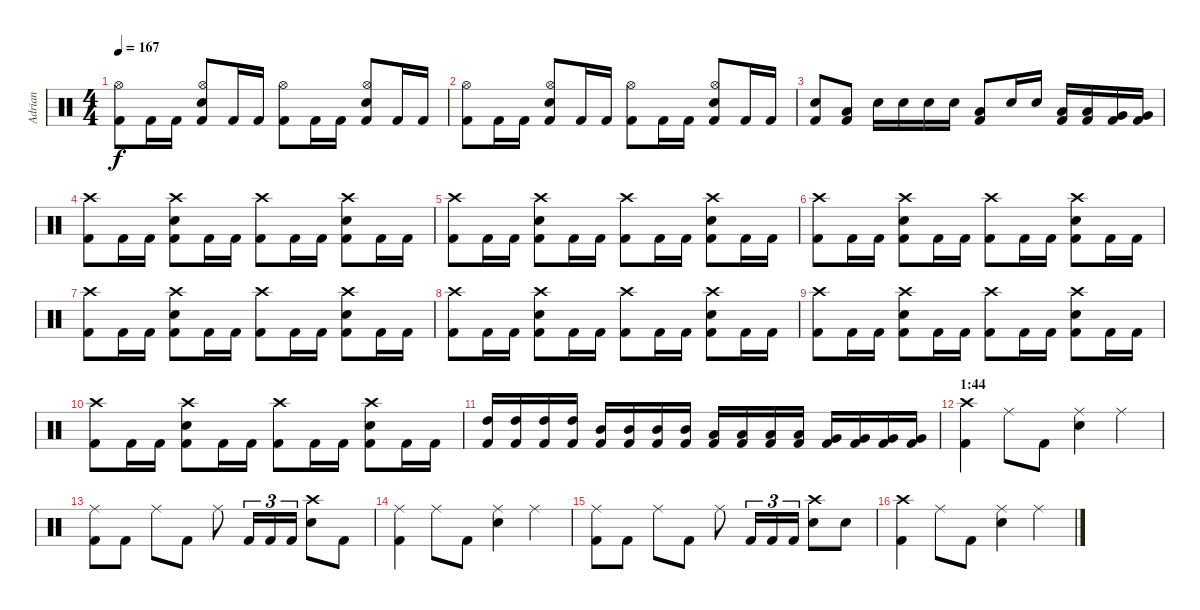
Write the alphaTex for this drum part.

\track ("Adrian" "Adrian") {instrument percussion}
\staff {score}
\articulation defaults
\ts (4 4)
\tempo 167
\clef neutral
\ks c
("Kick (hit) 2" "Hi-Hat (open)").8{dy f} "Kick (hit) 2".16 "Kick (hit) 2".16 ("Kick (hit) 2" "Snare (hit) 2" "Hi-Hat (open)").8 "Kick (hit) 2".16 "Kick (hit) 2".16 ("Kick (hit) 2" "Hi-Hat (open)").8 "Kick (hit) 2".16 "Kick (hit) 2".16 ("Kick (hit) 2" "Snare (hit) 2" "Hi-Hat (open)").8 "Kick (hit) 2".16 "Kick (hit) 2".16 |
("Kick (hit) 2" "Hi-Hat (open)").8 "Kick (hit) 2".16 "Kick (hit) 2".16 ("Kick (hit) 2" "Snare (hit) 2" "Hi-Hat (open)").8 "Kick (hit) 2".16 "Kick (hit) 2".16 ("Kick (hit) 2" "Hi-Hat (open)").8 "Kick (hit) 2".16 "Kick (hit) 2".16 ("Kick (hit) 2" "Snare (hit) 2" "Hi-Hat (open)").8 "Kick (hit) 2".16 "Kick (hit) 2".16 |
("Kick (hit) 2" "Snare (hit) 2").8 ("Kick (hit) 2" "Low Tom (hit)").8 "Snare (hit) 2".16 "Snare (hit) 2".16 "Snare (hit) 2".16 "Snare (hit) 2".16 ("Kick (hit) 2" "Low Tom (hit)").8 "Snare (hit) 2".16 "Snare (hit) 2".16 ("Kick (hit) 2" "Low Tom (hit)").16 ("Kick (hit) 2" "Low Tom (hit)").16 ("Kick (hit) 2" "Very Low Tom (hit)").16 ("Kick (hit) 2" "Very Low Tom (hit)").16 |
("Kick (hit) 2" "Crash high (hit)").8 "Kick (hit) 2".16 "Kick (hit) 2".16 ("Kick (hit) 2" "Snare (hit) 2" "Crash high (hit)").8 "Kick (hit) 2".16 "Kick (hit) 2".16 ("Kick (hit) 2" "Crash high (hit)").8 "Kick (hit) 2".16 "Kick (hit) 2".16 ("Kick (hit) 2" "Snare (hit) 2" "Crash high (hit)").8 "Kick (hit) 2".16 "Kick (hit) 2".16 |
("Kick (hit) 2" "Crash high (hit)").8 "Kick (hit) 2".16 "Kick (hit) 2".16 ("Kick (hit) 2" "Snare (hit) 2" "Crash high (hit)").8 "Kick (hit) 2".16 "Kick (hit) 2".16 ("Kick (hit) 2" "Crash high (hit)").8 "Kick (hit) 2".16 "Kick (hit) 2".16 ("Kick (hit) 2" "Snare (hit) 2" "Crash high (hit)").8 "Kick (hit) 2".16 "Kick (hit) 2".16 |
("Kick (hit) 2" "Crash high (hit)").8 "Kick (hit) 2".16 "Kick (hit) 2".16 ("Kick (hit) 2" "Snare (hit) 2" "Crash high (hit)").8 "Kick (hit) 2".16 "Kick (hit) 2".16 ("Kick (hit) 2" "Crash high (hit)").8 "Kick (hit) 2".16 "Kick (hit) 2".16 ("Kick (hit) 2" "Snare (hit) 2" "Crash high (hit)").8 "Kick (hit) 2".16 "Kick (hit) 2".16 |
("Kick (hit) 2" "Crash high (hit)").8 "Kick (hit) 2".16 "Kick (hit) 2".16 ("Kick (hit) 2" "Snare (hit) 2" "Crash high (hit)").8 "Kick (hit) 2".16 "Kick (hit) 2".16 ("Kick (hit) 2" "Crash high (hit)").8 "Kick (hit) 2".16 "Kick (hit) 2".16 ("Kick (hit) 2" "Snare (hit) 2" "Crash high (hit)").8 "Kick (hit) 2".16 "Kick (hit) 2".16 |
("Kick (hit) 2" "Crash high (hit)").8 "Kick (hit) 2".16 "Kick (hit) 2".16 ("Kick (hit) 2" "Snare (hit) 2" "Crash high (hit)").8 "Kick (hit) 2".16 "Kick (hit) 2".16 ("Kick (hit) 2" "Crash high (hit)").8 "Kick (hit) 2".16 "Kick (hit) 2".16 ("Kick (hit) 2" "Snare (hit) 2" "Crash high (hit)").8 "Kick (hit) 2".16 "Kick (hit) 2".16 |
("Kick (hit) 2" "Crash high (hit)").8 "Kick (hit) 2".16 "Kick (hit) 2".16 ("Kick (hit) 2" "Snare (hit) 2" "Crash high (hit)").8 "Kick (hit) 2".16 "Kick (hit) 2".16 ("Kick (hit) 2" "Crash high (hit)").8 "Kick (hit) 2".16 "Kick (hit) 2".16 ("Kick (hit) 2" "Snare (hit) 2" "Crash high (hit)").8 "Kick (hit) 2".16 "Kick (hit) 2".16 |
("Kick (hit) 2" "Crash high (hit)").8 "Kick (hit) 2".16 "Kick (hit) 2".16 ("Kick (hit) 2" "Snare (hit) 2" "Crash high (hit)").8 "Kick (hit) 2".16 "Kick (hit) 2".16 ("Kick (hit) 2" "Crash high (hit)").8 "Kick (hit) 2".16 "Kick (hit) 2".16 ("Kick (hit) 2" "Snare (hit) 2" "Crash high (hit)").8 "Kick (hit) 2".16 "Kick (hit) 2".16 |
("Kick (hit) 2" "High Tom (hit)").16 ("Kick (hit) 2" "High Tom (hit)").16 ("Kick (hit) 2" "High Tom (hit)").16 ("Kick (hit) 2" "High Tom (hit)").16 ("Kick (hit) 2" "Mid Tom (hit)").16 ("Kick (hit) 2" "Mid Tom (hit)").16 ("Kick (hit) 2" "Mid Tom (hit)").16 ("Kick (hit) 2" "Mid Tom (hit)").16 ("Kick (hit) 2" "Low Tom (hit)").16 ("Kick (hit) 2" "Low Tom (hit)").16 ("Kick (hit) 2" "Low Tom (hit)").16 ("Kick (hit) 2" "Low Tom (hit)").16 ("Kick (hit) 2" "Very Low Tom (hit)").16 ("Kick (hit) 2" "Very Low Tom (hit)").16 ("Kick (hit) 2" "Very Low Tom (hit)").16 ("Kick (hit) 2" "Very Low Tom (hit)").16 |
\section ("" "1:44")
("Kick (hit) 2" "Crash high (hit)").4 "Ride (middle)".8 "Kick (hit) 2".8 ("Snare (hit) 2" "Ride (middle)").4 "Ride (middle)".4 |
("Kick (hit) 2" "Ride (middle)").8 "Kick (hit) 2".8 "Ride (middle)".8 "Kick (hit) 2".8 "Ride (middle)".8 "Kick (hit) 2".16{tu (3 2)} "Kick (hit) 2".16{tu (3 2)} "Kick (hit) 2".16{tu (3 2)} ("Snare (hit) 2" "Crash high (hit)").8 "Kick (hit) 2".8 |
("Kick (hit) 2" "Ride (middle)").4 "Ride (middle)".8 "Kick (hit) 2".8 ("Snare (hit) 2" "Ride (middle)").4 "Ride (middle)".4 |
("Kick (hit) 2" "Ride (middle)").8 "Kick (hit) 2".8 "Ride (middle)".8 "Kick (hit) 2".8 "Ride (middle)".8 "Kick (hit) 2".16{tu (3 2)} "Kick (hit) 2".16{tu (3 2)} "Kick (hit) 2".16{tu (3 2)} ("Snare (hit) 2" "Crash high (hit)").8 "Snare (hit) 2".8 |
("Kick (hit) 2" "Crash high (hit)").4 "Ride (middle)".8 "Kick (hit) 2".8 ("Snare (hit) 2" "Ride (middle)").4 "Ride (middle)".4
